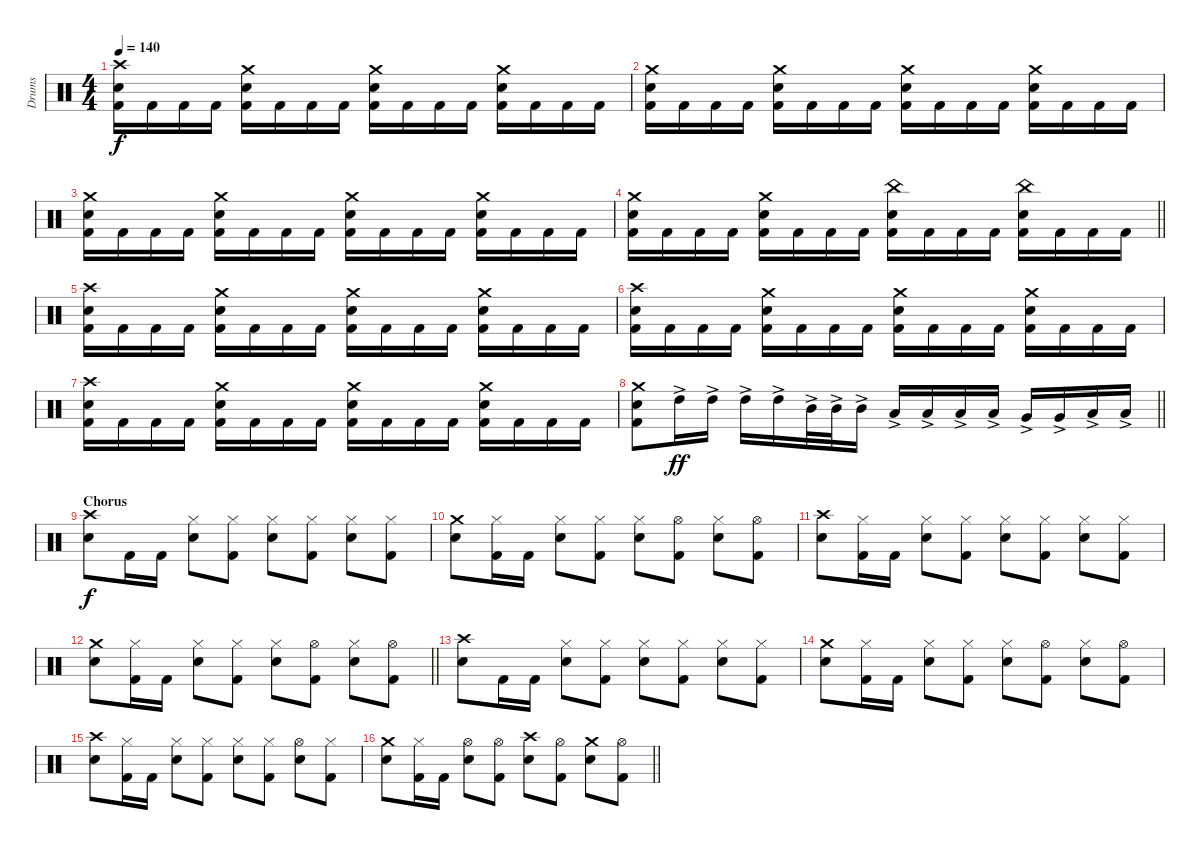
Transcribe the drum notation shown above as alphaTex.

\track ("Drums" "Drums") {instrument percussion}
\staff {score}
\articulation defaults
\ts (4 4)
\section ("" "")
\tempo 140
\clef neutral
\ks c
("Kick (hit) 2" "Snare (hit) 2" "Crash high (hit)").16{dy f} "Kick (hit) 2".16 "Kick (hit) 2".16 "Kick (hit) 2".16 ("Kick (hit) 2" "Snare (hit) 2" "Crash medium (hit)").16 "Kick (hit) 2".16 "Kick (hit) 2".16 "Kick (hit) 2".16 ("Kick (hit) 2" "Snare (hit) 2" "Crash medium (hit)").16 "Kick (hit) 2".16 "Kick (hit) 2".16 "Kick (hit) 2".16 ("Kick (hit) 2" "Snare (hit) 2" "Crash medium (hit)").16 "Kick (hit) 2".16 "Kick (hit) 2".16 "Kick (hit) 2".16 |
("Kick (hit) 2" "Snare (hit) 2" "Crash medium (hit)").16 "Kick (hit) 2".16 "Kick (hit) 2".16 "Kick (hit) 2".16 ("Kick (hit) 2" "Snare (hit) 2" "Crash medium (hit)").16 "Kick (hit) 2".16 "Kick (hit) 2".16 "Kick (hit) 2".16 ("Kick (hit) 2" "Snare (hit) 2" "Crash medium (hit)").16 "Kick (hit) 2".16 "Kick (hit) 2".16 "Kick (hit) 2".16 ("Kick (hit) 2" "Snare (hit) 2" "Crash medium (hit)").16 "Kick (hit) 2".16 "Kick (hit) 2".16 "Kick (hit) 2".16 |
("Kick (hit) 2" "Snare (hit) 2" "Crash medium (hit)").16 "Kick (hit) 2".16 "Kick (hit) 2".16 "Kick (hit) 2".16 ("Kick (hit) 2" "Snare (hit) 2" "Crash medium (hit)").16 "Kick (hit) 2".16 "Kick (hit) 2".16 "Kick (hit) 2".16 ("Kick (hit) 2" "Snare (hit) 2" "Crash medium (hit)").16 "Kick (hit) 2".16 "Kick (hit) 2".16 "Kick (hit) 2".16 ("Kick (hit) 2" "Snare (hit) 2" "Crash medium (hit)").16 "Kick (hit) 2".16 "Kick (hit) 2".16 "Kick (hit) 2".16 |
\barLineRight lightlight
("Kick (hit) 2" "Snare (hit) 2" "Crash medium (hit)").16 "Kick (hit) 2".16 "Kick (hit) 2".16 "Kick (hit) 2".16 ("Kick (hit) 2" "Snare (hit) 2" "Crash medium (hit)").16 "Kick (hit) 2".16 "Kick (hit) 2".16 "Kick (hit) 2".16 ("Kick (hit) 2" "Snare (hit) 2" "China (hit)").16 "Kick (hit) 2".16 "Kick (hit) 2".16 "Kick (hit) 2".16 ("Kick (hit) 2" "Snare (hit) 2" "China (hit)").16 "Kick (hit) 2".16 "Kick (hit) 2".16 "Kick (hit) 2".16 |
\section ("" "")
("Kick (hit) 2" "Snare (hit) 2" "Crash high (hit)").16 "Kick (hit) 2".16 "Kick (hit) 2".16 "Kick (hit) 2".16 ("Kick (hit) 2" "Snare (hit) 2" "Crash medium (hit)").16 "Kick (hit) 2".16 "Kick (hit) 2".16 "Kick (hit) 2".16 ("Kick (hit) 2" "Snare (hit) 2" "Crash medium (hit)").16 "Kick (hit) 2".16 "Kick (hit) 2".16 "Kick (hit) 2".16 ("Kick (hit) 2" "Snare (hit) 2" "Crash medium (hit)").16 "Kick (hit) 2".16 "Kick (hit) 2".16 "Kick (hit) 2".16 |
("Kick (hit) 2" "Snare (hit) 2" "Crash high (hit)").16 "Kick (hit) 2".16 "Kick (hit) 2".16 "Kick (hit) 2".16 ("Kick (hit) 2" "Snare (hit) 2" "Crash medium (hit)").16 "Kick (hit) 2".16 "Kick (hit) 2".16 "Kick (hit) 2".16 ("Kick (hit) 2" "Snare (hit) 2" "Crash medium (hit)").16 "Kick (hit) 2".16 "Kick (hit) 2".16 "Kick (hit) 2".16 ("Kick (hit) 2" "Snare (hit) 2" "Crash medium (hit)").16 "Kick (hit) 2".16 "Kick (hit) 2".16 "Kick (hit) 2".16 |
("Kick (hit) 2" "Snare (hit) 2" "Crash high (hit)").16 "Kick (hit) 2".16 "Kick (hit) 2".16 "Kick (hit) 2".16 ("Kick (hit) 2" "Snare (hit) 2" "Crash medium (hit)").16 "Kick (hit) 2".16 "Kick (hit) 2".16 "Kick (hit) 2".16 ("Kick (hit) 2" "Snare (hit) 2" "Crash medium (hit)").16 "Kick (hit) 2".16 "Kick (hit) 2".16 "Kick (hit) 2".16 ("Kick (hit) 2" "Snare (hit) 2" "Crash medium (hit)").16 "Kick (hit) 2".16 "Kick (hit) 2".16 "Kick (hit) 2".16 |
\barLineRight lightlight
("Kick (hit) 2" "Snare (hit) 2" "Crash medium (hit)").8 "High Tom (hit)"{ac}.16{dy ff} "High Tom (hit)"{ac}.16 "High Tom (hit)"{ac}.16 "High Tom (hit)"{ac}.16 "Mid Tom (hit)"{ac}.32 "Mid Tom (hit)"{ac}.32 "Mid Tom (hit)"{ac}.16 "Low Tom (hit)"{ac}.16 "Low Tom (hit)"{ac}.16 "Low Tom (hit)"{ac}.16 "Low Tom (hit)"{ac}.16 "Very Low Tom (hit)"{ac}.16 "Very Low Tom (hit)"{ac}.16 "Low Floor Tom (hit)"{ac}.16 "Low Floor Tom (hit)"{ac}.16 |
\section ("" "Chorus")
("Snare (hit) 2" "Crash high (hit)").8{dy f} "Kick (hit) 2".16 "Kick (hit) 2".16 ("Snare (hit) 2" "Hi-Hat (closed)").8 ("Kick (hit) 2" "Hi-Hat (closed)").8 ("Snare (hit) 2" "Hi-Hat (closed)").8 ("Kick (hit) 2" "Hi-Hat (closed)").8 ("Snare (hit) 2" "Hi-Hat (closed)").8 ("Kick (hit) 2" "Hi-Hat (closed)").8 |
("Snare (hit) 2" "Crash medium (hit)").8 ("Kick (hit) 2" "Hi-Hat (closed)").16 "Kick (hit) 2".16 ("Snare (hit) 2" "Hi-Hat (closed)").8 ("Kick (hit) 2" "Hi-Hat (closed)").8 ("Snare (hit) 2" "Hi-Hat (closed)").8 ("Kick (hit) 2" "Hi-Hat (open)").8 ("Snare (hit) 2" "Hi-Hat (closed)").8 ("Kick (hit) 2" "Hi-Hat (open)").8 |
("Snare (hit) 2" "Crash high (hit)").8 ("Kick (hit) 2" "Hi-Hat (closed)").16 "Kick (hit) 2".16 ("Snare (hit) 2" "Hi-Hat (closed)").8 ("Kick (hit) 2" "Hi-Hat (closed)").8 ("Snare (hit) 2" "Hi-Hat (closed)").8 ("Kick (hit) 2" "Hi-Hat (closed)").8 ("Snare (hit) 2" "Hi-Hat (closed)").8 ("Kick (hit) 2" "Hi-Hat (closed)").8 |
\barLineRight lightlight
("Snare (hit) 2" "Crash medium (hit)").8 ("Kick (hit) 2" "Hi-Hat (closed)").16 "Kick (hit) 2".16 ("Snare (hit) 2" "Hi-Hat (closed)").8 ("Kick (hit) 2" "Hi-Hat (closed)").8 ("Snare (hit) 2" "Hi-Hat (closed)").8 ("Kick (hit) 2" "Hi-Hat (open)").8 ("Snare (hit) 2" "Hi-Hat (closed)").8 ("Kick (hit) 2" "Hi-Hat (open)").8 |
\section ("" "")
("Snare (hit) 2" "Crash high (hit)").8 "Kick (hit) 2".16 "Kick (hit) 2".16 ("Snare (hit) 2" "Hi-Hat (closed)").8 ("Kick (hit) 2" "Hi-Hat (closed)").8 ("Snare (hit) 2" "Hi-Hat (closed)").8 ("Kick (hit) 2" "Hi-Hat (closed)").8 ("Snare (hit) 2" "Hi-Hat (closed)").8 ("Kick (hit) 2" "Hi-Hat (closed)").8 |
("Snare (hit) 2" "Crash medium (hit)").8 ("Kick (hit) 2" "Hi-Hat (closed)").16 "Kick (hit) 2".16 ("Snare (hit) 2" "Hi-Hat (closed)").8 ("Kick (hit) 2" "Hi-Hat (closed)").8 ("Snare (hit) 2" "Hi-Hat (closed)").8 ("Kick (hit) 2" "Hi-Hat (open)").8 ("Snare (hit) 2" "Hi-Hat (closed)").8 ("Kick (hit) 2" "Hi-Hat (open)").8 |
("Snare (hit) 2" "Crash high (hit)").8 ("Kick (hit) 2" "Hi-Hat (closed)").16 "Kick (hit) 2".16 ("Snare (hit) 2" "Hi-Hat (closed)").8 ("Kick (hit) 2" "Hi-Hat (closed)").8 ("Snare (hit) 2" "Hi-Hat (closed)").8 ("Kick (hit) 2" "Hi-Hat (closed)").8 ("Snare (hit) 2" "Hi-Hat (open)").8 ("Kick (hit) 2" "Hi-Hat (closed)").8 |
\barLineRight lightlight
("Snare (hit) 2" "Crash medium (hit)").8 ("Kick (hit) 2" "Hi-Hat (closed)").16 "Kick (hit) 2".16 ("Snare (hit) 2" "Hi-Hat (open)").8 ("Kick (hit) 2" "Hi-Hat (open)").8 ("Snare (hit) 2" "Crash high (hit)").8 ("Kick (hit) 2" "Hi-Hat (open)").8 ("Snare (hit) 2" "Crash medium (hit)").8 ("Kick (hit) 2" "Hi-Hat (open)").8
